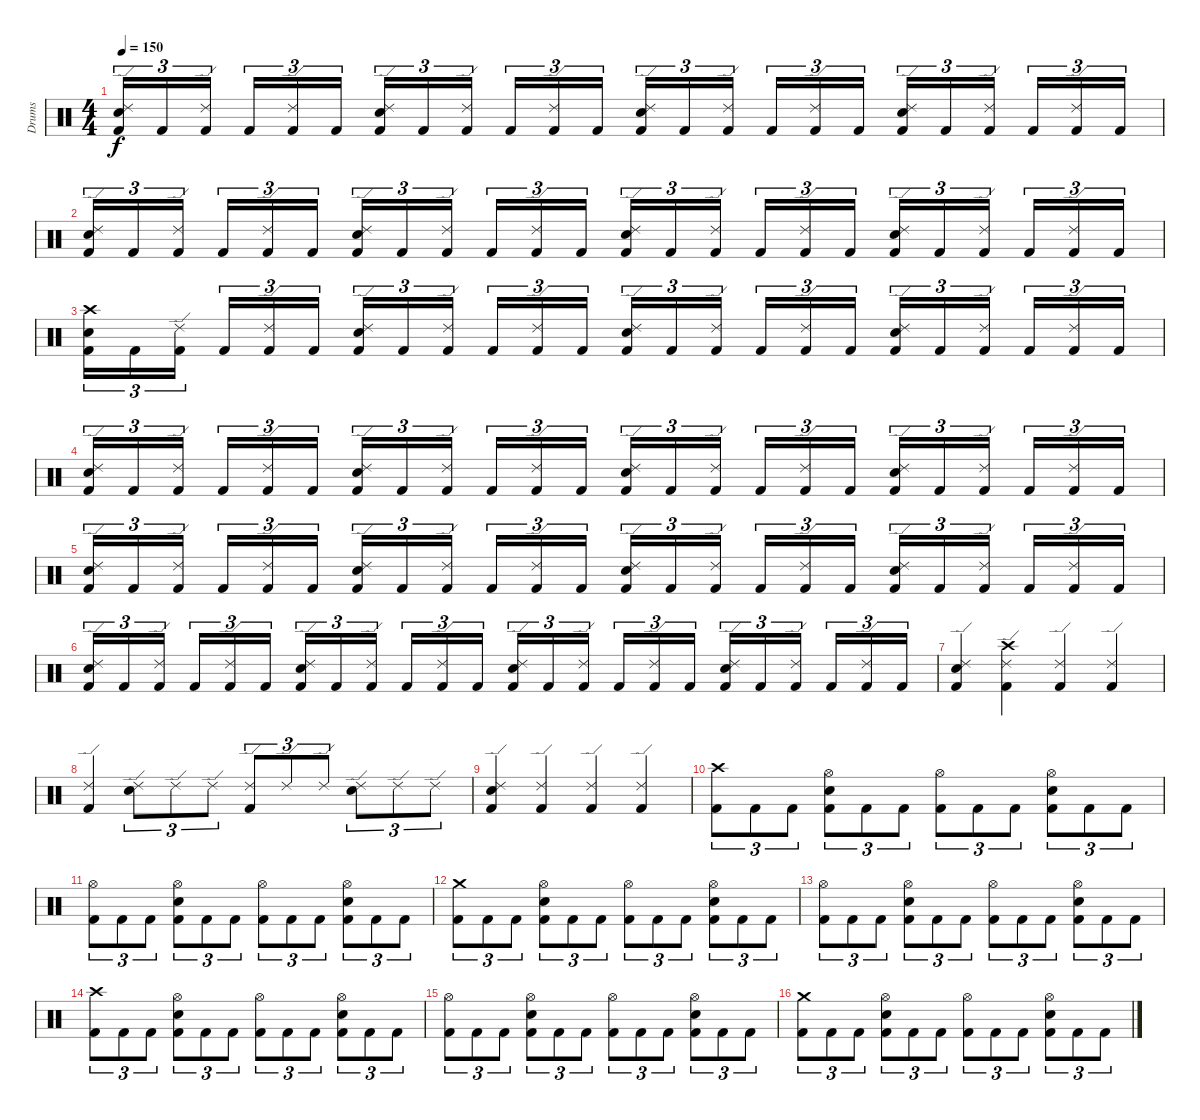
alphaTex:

\track ("Drums" "Drums") {instrument percussion}
\staff {score}
\articulation defaults
\ts (4 4)
\tempo 150
\clef neutral
\ks c
("Ride (edge) 2" "Electric Snare (hit)" "Kick (hit) 2").16{tu (3 2) dy f} "Kick (hit) 2".16{tu (3 2)} ("Ride (edge) 2" "Kick (hit) 2").16{tu (3 2)} "Kick (hit) 2".16{tu (3 2)} ("Ride (edge) 2" "Kick (hit) 2").16{tu (3 2)} "Kick (hit) 2".16{tu (3 2)} ("Ride (edge) 2" "Electric Snare (hit)" "Kick (hit) 2").16{tu (3 2)} "Kick (hit) 2".16{tu (3 2)} ("Ride (edge) 2" "Kick (hit) 2").16{tu (3 2)} "Kick (hit) 2".16{tu (3 2)} ("Ride (edge) 2" "Kick (hit) 2").16{tu (3 2)} "Kick (hit) 2".16{tu (3 2)} ("Ride (edge) 2" "Electric Snare (hit)" "Kick (hit) 2").16{tu (3 2)} "Kick (hit) 2".16{tu (3 2)} ("Ride (edge) 2" "Kick (hit) 2").16{tu (3 2)} "Kick (hit) 2".16{tu (3 2)} ("Ride (edge) 2" "Kick (hit) 2").16{tu (3 2)} "Kick (hit) 2".16{tu (3 2)} ("Ride (edge) 2" "Electric Snare (hit)" "Kick (hit) 2").16{tu (3 2)} "Kick (hit) 2".16{tu (3 2)} ("Ride (edge) 2" "Kick (hit) 2").16{tu (3 2)} "Kick (hit) 2".16{tu (3 2)} ("Ride (edge) 2" "Kick (hit) 2").16{tu (3 2)} "Kick (hit) 2".16{tu (3 2)} |
("Ride (edge) 2" "Electric Snare (hit)" "Kick (hit) 2").16{tu (3 2)} "Kick (hit) 2".16{tu (3 2)} ("Ride (edge) 2" "Kick (hit) 2").16{tu (3 2)} "Kick (hit) 2".16{tu (3 2)} ("Ride (edge) 2" "Kick (hit) 2").16{tu (3 2)} "Kick (hit) 2".16{tu (3 2)} ("Ride (edge) 2" "Electric Snare (hit)" "Kick (hit) 2").16{tu (3 2)} "Kick (hit) 2".16{tu (3 2)} ("Ride (edge) 2" "Kick (hit) 2").16{tu (3 2)} "Kick (hit) 2".16{tu (3 2)} ("Ride (edge) 2" "Kick (hit) 2").16{tu (3 2)} "Kick (hit) 2".16{tu (3 2)} ("Ride (edge) 2" "Electric Snare (hit)" "Kick (hit) 2").16{tu (3 2)} "Kick (hit) 2".16{tu (3 2)} ("Ride (edge) 2" "Kick (hit) 2").16{tu (3 2)} "Kick (hit) 2".16{tu (3 2)} ("Ride (edge) 2" "Kick (hit) 2").16{tu (3 2)} "Kick (hit) 2".16{tu (3 2)} ("Ride (edge) 2" "Electric Snare (hit)" "Kick (hit) 2").16{tu (3 2)} "Kick (hit) 2".16{tu (3 2)} ("Ride (edge) 2" "Kick (hit) 2").16{tu (3 2)} "Kick (hit) 2".16{tu (3 2)} ("Ride (edge) 2" "Kick (hit) 2").16{tu (3 2)} "Kick (hit) 2".16{tu (3 2)} |
("Crash high (hit)" "Electric Snare (hit)" "Kick (hit) 2").16{tu (3 2)} "Kick (hit) 2".16{tu (3 2)} ("Ride (edge) 2" "Kick (hit) 2").16{tu (3 2)} "Kick (hit) 2".16{tu (3 2)} ("Ride (edge) 2" "Kick (hit) 2").16{tu (3 2)} "Kick (hit) 2".16{tu (3 2)} ("Ride (edge) 2" "Electric Snare (hit)" "Kick (hit) 2").16{tu (3 2)} "Kick (hit) 2".16{tu (3 2)} ("Ride (edge) 2" "Kick (hit) 2").16{tu (3 2)} "Kick (hit) 2".16{tu (3 2)} ("Ride (edge) 2" "Kick (hit) 2").16{tu (3 2)} "Kick (hit) 2".16{tu (3 2)} ("Ride (edge) 2" "Electric Snare (hit)" "Kick (hit) 2").16{tu (3 2)} "Kick (hit) 2".16{tu (3 2)} ("Ride (edge) 2" "Kick (hit) 2").16{tu (3 2)} "Kick (hit) 2".16{tu (3 2)} ("Ride (edge) 2" "Kick (hit) 2").16{tu (3 2)} "Kick (hit) 2".16{tu (3 2)} ("Ride (edge) 2" "Electric Snare (hit)" "Kick (hit) 2").16{tu (3 2)} "Kick (hit) 2".16{tu (3 2)} ("Ride (edge) 2" "Kick (hit) 2").16{tu (3 2)} "Kick (hit) 2".16{tu (3 2)} ("Ride (edge) 2" "Kick (hit) 2").16{tu (3 2)} "Kick (hit) 2".16{tu (3 2)} |
("Ride (edge) 2" "Electric Snare (hit)" "Kick (hit) 2").16{tu (3 2)} "Kick (hit) 2".16{tu (3 2)} ("Ride (edge) 2" "Kick (hit) 2").16{tu (3 2)} "Kick (hit) 2".16{tu (3 2)} ("Ride (edge) 2" "Kick (hit) 2").16{tu (3 2)} "Kick (hit) 2".16{tu (3 2)} ("Ride (edge) 2" "Electric Snare (hit)" "Kick (hit) 2").16{tu (3 2)} "Kick (hit) 2".16{tu (3 2)} ("Ride (edge) 2" "Kick (hit) 2").16{tu (3 2)} "Kick (hit) 2".16{tu (3 2)} ("Ride (edge) 2" "Kick (hit) 2").16{tu (3 2)} "Kick (hit) 2".16{tu (3 2)} ("Ride (edge) 2" "Electric Snare (hit)" "Kick (hit) 2").16{tu (3 2)} "Kick (hit) 2".16{tu (3 2)} ("Ride (edge) 2" "Kick (hit) 2").16{tu (3 2)} "Kick (hit) 2".16{tu (3 2)} ("Ride (edge) 2" "Kick (hit) 2").16{tu (3 2)} "Kick (hit) 2".16{tu (3 2)} ("Ride (edge) 2" "Electric Snare (hit)" "Kick (hit) 2").16{tu (3 2)} "Kick (hit) 2".16{tu (3 2)} ("Ride (edge) 2" "Kick (hit) 2").16{tu (3 2)} "Kick (hit) 2".16{tu (3 2)} ("Ride (edge) 2" "Kick (hit) 2").16{tu (3 2)} "Kick (hit) 2".16{tu (3 2)} |
("Ride (edge) 2" "Electric Snare (hit)" "Kick (hit) 2").16{tu (3 2)} "Kick (hit) 2".16{tu (3 2)} ("Ride (edge) 2" "Kick (hit) 2").16{tu (3 2)} "Kick (hit) 2".16{tu (3 2)} ("Ride (edge) 2" "Kick (hit) 2").16{tu (3 2)} "Kick (hit) 2".16{tu (3 2)} ("Ride (edge) 2" "Electric Snare (hit)" "Kick (hit) 2").16{tu (3 2)} "Kick (hit) 2".16{tu (3 2)} ("Ride (edge) 2" "Kick (hit) 2").16{tu (3 2)} "Kick (hit) 2".16{tu (3 2)} ("Ride (edge) 2" "Kick (hit) 2").16{tu (3 2)} "Kick (hit) 2".16{tu (3 2)} ("Ride (edge) 2" "Electric Snare (hit)" "Kick (hit) 2").16{tu (3 2)} "Kick (hit) 2".16{tu (3 2)} ("Ride (edge) 2" "Kick (hit) 2").16{tu (3 2)} "Kick (hit) 2".16{tu (3 2)} ("Ride (edge) 2" "Kick (hit) 2").16{tu (3 2)} "Kick (hit) 2".16{tu (3 2)} ("Ride (edge) 2" "Electric Snare (hit)" "Kick (hit) 2").16{tu (3 2)} "Kick (hit) 2".16{tu (3 2)} ("Ride (edge) 2" "Kick (hit) 2").16{tu (3 2)} "Kick (hit) 2".16{tu (3 2)} ("Ride (edge) 2" "Kick (hit) 2").16{tu (3 2)} "Kick (hit) 2".16{tu (3 2)} |
("Ride (edge) 2" "Electric Snare (hit)" "Kick (hit) 2").16{tu (3 2)} "Kick (hit) 2".16{tu (3 2)} ("Ride (edge) 2" "Kick (hit) 2").16{tu (3 2)} "Kick (hit) 2".16{tu (3 2)} ("Ride (edge) 2" "Kick (hit) 2").16{tu (3 2)} "Kick (hit) 2".16{tu (3 2)} ("Ride (edge) 2" "Electric Snare (hit)" "Kick (hit) 2").16{tu (3 2)} "Kick (hit) 2".16{tu (3 2)} ("Ride (edge) 2" "Kick (hit) 2").16{tu (3 2)} "Kick (hit) 2".16{tu (3 2)} ("Ride (edge) 2" "Kick (hit) 2").16{tu (3 2)} "Kick (hit) 2".16{tu (3 2)} ("Ride (edge) 2" "Electric Snare (hit)" "Kick (hit) 2").16{tu (3 2)} "Kick (hit) 2".16{tu (3 2)} ("Ride (edge) 2" "Kick (hit) 2").16{tu (3 2)} "Kick (hit) 2".16{tu (3 2)} ("Ride (edge) 2" "Kick (hit) 2").16{tu (3 2)} "Kick (hit) 2".16{tu (3 2)} ("Ride (edge) 2" "Electric Snare (hit)" "Kick (hit) 2").16{tu (3 2)} "Kick (hit) 2".16{tu (3 2)} ("Ride (edge) 2" "Kick (hit) 2").16{tu (3 2)} "Kick (hit) 2".16{tu (3 2)} ("Ride (edge) 2" "Kick (hit) 2").16{tu (3 2)} "Kick (hit) 2".16{tu (3 2)} |
("Ride (edge) 2" "Electric Snare (hit)" "Kick (hit) 2").4 ("Crash high (hit)" "Ride (edge) 2" "Kick (hit) 2").4 ("Ride (edge) 2" "Kick (hit) 2").4 ("Ride (edge) 2" "Kick (hit) 2").4 |
("Ride (edge) 2" "Kick (hit) 2").4 ("Ride (edge) 2" "Electric Snare (hit)").8{tu (3 2)} "Ride (edge) 2".8{tu (3 2)} "Ride (edge) 2".8{tu (3 2)} ("Ride (edge) 2" "Kick (hit) 2").8{tu (3 2)} "Ride (edge) 2".8{tu (3 2)} "Ride (edge) 2".8{tu (3 2)} ("Ride (edge) 2" "Electric Snare (hit)").8{tu (3 2)} "Ride (edge) 2".8{tu (3 2)} "Ride (edge) 2".8{tu (3 2)} |
("Ride (edge) 2" "Electric Snare (hit)" "Kick (hit) 2").4 ("Ride (edge) 2" "Kick (hit) 2").4 ("Ride (edge) 2" "Kick (hit) 2").4 ("Ride (edge) 2" "Kick (hit) 2").4 |
("Crash high (hit)" "Kick (hit) 2").8{tu (3 2)} "Kick (hit) 2".8{tu (3 2)} "Kick (hit) 2".8{tu (3 2)} ("Hi-Hat (open)" "Electric Snare (hit)" "Kick (hit) 2").8{tu (3 2)} "Kick (hit) 2".8{tu (3 2)} "Kick (hit) 2".8{tu (3 2)} ("Hi-Hat (open)" "Kick (hit) 2").8{tu (3 2)} "Kick (hit) 2".8{tu (3 2)} "Kick (hit) 2".8{tu (3 2)} ("Hi-Hat (open)" "Electric Snare (hit)" "Kick (hit) 2").8{tu (3 2)} "Kick (hit) 2".8{tu (3 2)} "Kick (hit) 2".8{tu (3 2)} |
("Hi-Hat (open)" "Kick (hit) 2").8{tu (3 2)} "Kick (hit) 2".8{tu (3 2)} "Kick (hit) 2".8{tu (3 2)} ("Hi-Hat (open)" "Electric Snare (hit)" "Kick (hit) 2").8{tu (3 2)} "Kick (hit) 2".8{tu (3 2)} "Kick (hit) 2".8{tu (3 2)} ("Hi-Hat (open)" "Kick (hit) 2").8{tu (3 2)} "Kick (hit) 2".8{tu (3 2)} "Kick (hit) 2".8{tu (3 2)} ("Hi-Hat (open)" "Electric Snare (hit)" "Kick (hit) 2").8{tu (3 2)} "Kick (hit) 2".8{tu (3 2)} "Kick (hit) 2".8{tu (3 2)} |
("Crash medium (hit)" "Kick (hit) 2").8{tu (3 2)} "Kick (hit) 2".8{tu (3 2)} "Kick (hit) 2".8{tu (3 2)} ("Hi-Hat (open)" "Electric Snare (hit)" "Kick (hit) 2").8{tu (3 2)} "Kick (hit) 2".8{tu (3 2)} "Kick (hit) 2".8{tu (3 2)} ("Hi-Hat (open)" "Kick (hit) 2").8{tu (3 2)} "Kick (hit) 2".8{tu (3 2)} "Kick (hit) 2".8{tu (3 2)} ("Hi-Hat (open)" "Electric Snare (hit)" "Kick (hit) 2").8{tu (3 2)} "Kick (hit) 2".8{tu (3 2)} "Kick (hit) 2".8{tu (3 2)} |
("Hi-Hat (open)" "Kick (hit) 2").8{tu (3 2)} "Kick (hit) 2".8{tu (3 2)} "Kick (hit) 2".8{tu (3 2)} ("Hi-Hat (open)" "Electric Snare (hit)" "Kick (hit) 2").8{tu (3 2)} "Kick (hit) 2".8{tu (3 2)} "Kick (hit) 2".8{tu (3 2)} ("Hi-Hat (open)" "Kick (hit) 2").8{tu (3 2)} "Kick (hit) 2".8{tu (3 2)} "Kick (hit) 2".8{tu (3 2)} ("Hi-Hat (open)" "Electric Snare (hit)" "Kick (hit) 2").8{tu (3 2)} "Kick (hit) 2".8{tu (3 2)} "Kick (hit) 2".8{tu (3 2)} |
("Crash high (hit)" "Kick (hit) 2").8{tu (3 2)} "Kick (hit) 2".8{tu (3 2)} "Kick (hit) 2".8{tu (3 2)} ("Hi-Hat (open)" "Electric Snare (hit)" "Kick (hit) 2").8{tu (3 2)} "Kick (hit) 2".8{tu (3 2)} "Kick (hit) 2".8{tu (3 2)} ("Hi-Hat (open)" "Kick (hit) 2").8{tu (3 2)} "Kick (hit) 2".8{tu (3 2)} "Kick (hit) 2".8{tu (3 2)} ("Hi-Hat (open)" "Electric Snare (hit)" "Kick (hit) 2").8{tu (3 2)} "Kick (hit) 2".8{tu (3 2)} "Kick (hit) 2".8{tu (3 2)} |
("Hi-Hat (open)" "Kick (hit) 2").8{tu (3 2)} "Kick (hit) 2".8{tu (3 2)} "Kick (hit) 2".8{tu (3 2)} ("Hi-Hat (open)" "Electric Snare (hit)" "Kick (hit) 2").8{tu (3 2)} "Kick (hit) 2".8{tu (3 2)} "Kick (hit) 2".8{tu (3 2)} ("Hi-Hat (open)" "Kick (hit) 2").8{tu (3 2)} "Kick (hit) 2".8{tu (3 2)} "Kick (hit) 2".8{tu (3 2)} ("Hi-Hat (open)" "Electric Snare (hit)" "Kick (hit) 2").8{tu (3 2)} "Kick (hit) 2".8{tu (3 2)} "Kick (hit) 2".8{tu (3 2)} |
("Crash medium (hit)" "Kick (hit) 2").8{tu (3 2)} "Kick (hit) 2".8{tu (3 2)} "Kick (hit) 2".8{tu (3 2)} ("Hi-Hat (open)" "Electric Snare (hit)" "Kick (hit) 2").8{tu (3 2)} "Kick (hit) 2".8{tu (3 2)} "Kick (hit) 2".8{tu (3 2)} ("Hi-Hat (open)" "Kick (hit) 2").8{tu (3 2)} "Kick (hit) 2".8{tu (3 2)} "Kick (hit) 2".8{tu (3 2)} ("Hi-Hat (open)" "Electric Snare (hit)" "Kick (hit) 2").8{tu (3 2)} "Kick (hit) 2".8{tu (3 2)} "Kick (hit) 2".8{tu (3 2)}
